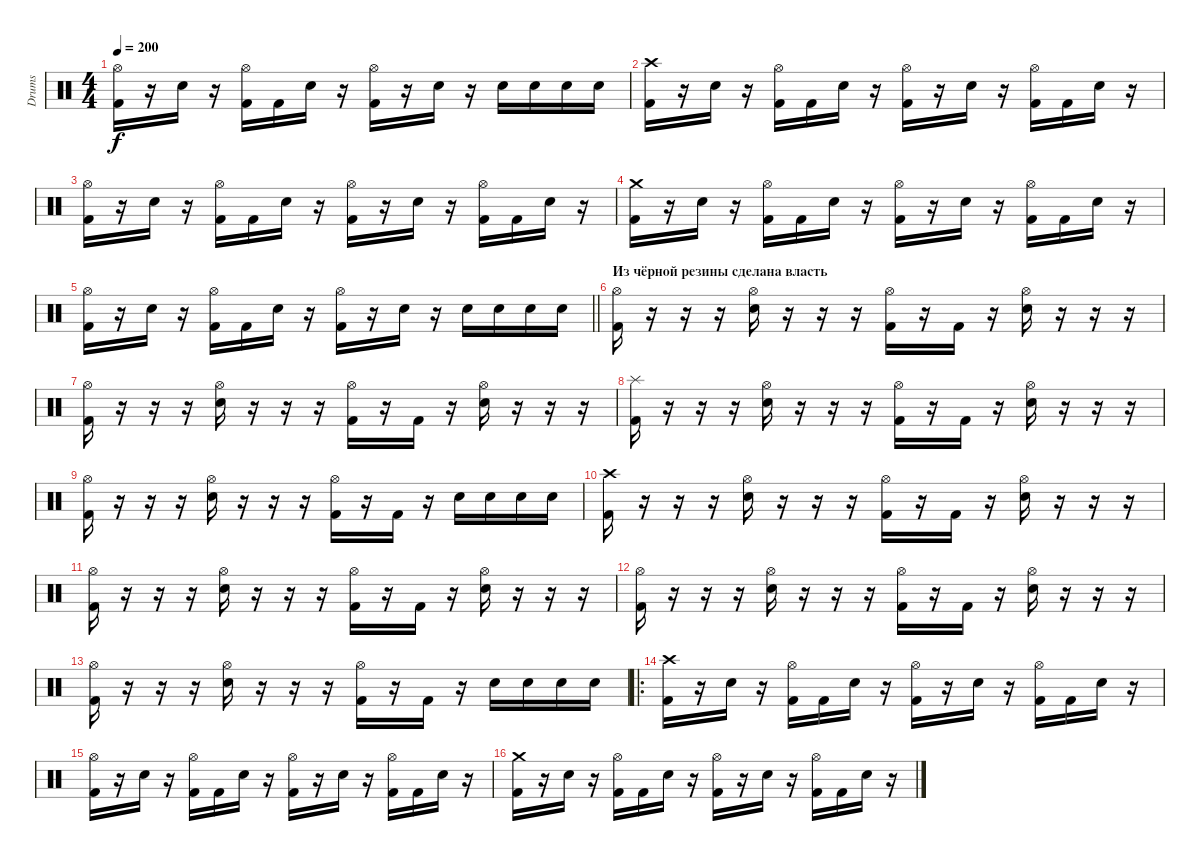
\track ("Drums" "Drums") {instrument percussion}
\staff {score}
\articulation defaults
\ts (4 4)
\tempo 200
\clef neutral
\ks c
("Hi-Hat (open)" "Kick (hit) 2").16{dy f} r.16 "Electric Snare (hit)".16 r.16 ("Hi-Hat (open)" "Kick (hit) 2").16 "Kick (hit) 2".16 "Electric Snare (hit)".16 r.16 ("Hi-Hat (open)" "Kick (hit) 2").16 r.16 "Electric Snare (hit)".16 r.16 "Electric Snare (hit)".16 "Electric Snare (hit)".16 "Electric Snare (hit)".16 "Electric Snare (hit)".16 |
("Crash high (hit)" "Kick (hit) 2").16 r.16 "Electric Snare (hit)".16 r.16 ("Hi-Hat (open)" "Kick (hit) 2").16 "Kick (hit) 2".16 "Electric Snare (hit)".16 r.16 ("Hi-Hat (open)" "Kick (hit) 2").16 r.16 "Electric Snare (hit)".16 r.16 ("Hi-Hat (open)" "Kick (hit) 2").16 "Kick (hit) 2".16 "Electric Snare (hit)".16 r.16 |
("Hi-Hat (open)" "Kick (hit) 2").16 r.16 "Electric Snare (hit)".16 r.16 ("Hi-Hat (open)" "Kick (hit) 2").16 "Kick (hit) 2".16 "Electric Snare (hit)".16 r.16 ("Hi-Hat (open)" "Kick (hit) 2").16 r.16 "Electric Snare (hit)".16 r.16 ("Hi-Hat (open)" "Kick (hit) 2").16 "Kick (hit) 2".16 "Electric Snare (hit)".16 r.16 |
("Crash medium (hit)" "Kick (hit) 2").16 r.16 "Electric Snare (hit)".16 r.16 ("Hi-Hat (open)" "Kick (hit) 2").16 "Kick (hit) 2".16 "Electric Snare (hit)".16 r.16 ("Hi-Hat (open)" "Kick (hit) 2").16 r.16 "Electric Snare (hit)".16 r.16 ("Hi-Hat (open)" "Kick (hit) 2").16 "Kick (hit) 2".16 "Electric Snare (hit)".16 r.16 |
\barLineRight lightlight
("Hi-Hat (open)" "Kick (hit) 2").16 r.16 "Electric Snare (hit)".16 r.16 ("Hi-Hat (open)" "Kick (hit) 2").16 "Kick (hit) 2".16 "Electric Snare (hit)".16 r.16 ("Hi-Hat (open)" "Kick (hit) 2").16 r.16 "Electric Snare (hit)".16 r.16 "Electric Snare (hit)".16 "Electric Snare (hit)".16 "Electric Snare (hit)".16 "Electric Snare (hit)".16 |
\section ("" "Из чёрной резины сделана власть")
("Hi-Hat (open)" "Kick (hit) 2").16 r.16 r.16 r.16 ("Hi-Hat (open)" "Electric Snare (hit)").16 r.16 r.16 r.16 ("Hi-Hat (open)" "Kick (hit) 2").16 r.16 "Kick (hit) 2".16 r.16 ("Hi-Hat (open)" "Electric Snare (hit)").16 r.16 r.16 r.16 |
("Hi-Hat (open)" "Kick (hit) 2").16 r.16 r.16 r.16 ("Hi-Hat (open)" "Electric Snare (hit)").16 r.16 r.16 r.16 ("Hi-Hat (open)" "Kick (hit) 2").16 r.16 "Kick (hit) 2".16 r.16 ("Hi-Hat (open)" "Electric Snare (hit)").16 r.16 r.16 r.16 |
("Splash (hit)" "Kick (hit) 2").16 r.16 r.16 r.16 ("Hi-Hat (open)" "Electric Snare (hit)").16 r.16 r.16 r.16 ("Hi-Hat (open)" "Kick (hit) 2").16 r.16 "Kick (hit) 2".16 r.16 ("Hi-Hat (open)" "Electric Snare (hit)").16 r.16 r.16 r.16 |
("Hi-Hat (open)" "Kick (hit) 2").16 r.16 r.16 r.16 ("Hi-Hat (open)" "Electric Snare (hit)").16 r.16 r.16 r.16 ("Hi-Hat (open)" "Kick (hit) 2").16 r.16 "Kick (hit) 2".16 r.16 "Electric Snare (hit)".16 "Electric Snare (hit)".16 "Electric Snare (hit)".16 "Electric Snare (hit)".16 |
("Crash high (hit)" "Kick (hit) 2").16 r.16 r.16 r.16 ("Hi-Hat (open)" "Electric Snare (hit)").16 r.16 r.16 r.16 ("Hi-Hat (open)" "Kick (hit) 2").16 r.16 "Kick (hit) 2".16 r.16 ("Hi-Hat (open)" "Electric Snare (hit)").16 r.16 r.16 r.16 |
("Hi-Hat (open)" "Kick (hit) 2").16 r.16 r.16 r.16 ("Hi-Hat (open)" "Electric Snare (hit)").16 r.16 r.16 r.16 ("Hi-Hat (open)" "Kick (hit) 2").16 r.16 "Kick (hit) 2".16 r.16 ("Hi-Hat (open)" "Electric Snare (hit)").16 r.16 r.16 r.16 |
("Hi-Hat (open)" "Kick (hit) 2").16 r.16 r.16 r.16 ("Hi-Hat (open)" "Electric Snare (hit)").16 r.16 r.16 r.16 ("Hi-Hat (open)" "Kick (hit) 2").16 r.16 "Kick (hit) 2".16 r.16 ("Hi-Hat (open)" "Electric Snare (hit)").16 r.16 r.16 r.16 |
("Hi-Hat (open)" "Kick (hit) 2").16 r.16 r.16 r.16 ("Hi-Hat (open)" "Electric Snare (hit)").16 r.16 r.16 r.16 ("Hi-Hat (open)" "Kick (hit) 2").16 r.16 "Kick (hit) 2".16 r.16 "Electric Snare (hit)".16 "Electric Snare (hit)".16 "Electric Snare (hit)".16 "Electric Snare (hit)".16 |
\ro
("Crash high (hit)" "Kick (hit) 2").16 r.16 "Electric Snare (hit)".16 r.16 ("Hi-Hat (open)" "Kick (hit) 2").16 "Kick (hit) 2".16 "Electric Snare (hit)".16 r.16 ("Hi-Hat (open)" "Kick (hit) 2").16 r.16 "Electric Snare (hit)".16 r.16 ("Hi-Hat (open)" "Kick (hit) 2").16 "Kick (hit) 2".16 "Electric Snare (hit)".16 r.16 |
("Hi-Hat (open)" "Kick (hit) 2").16 r.16 "Electric Snare (hit)".16 r.16 ("Hi-Hat (open)" "Kick (hit) 2").16 "Kick (hit) 2".16 "Electric Snare (hit)".16 r.16 ("Hi-Hat (open)" "Kick (hit) 2").16 r.16 "Electric Snare (hit)".16 r.16 ("Hi-Hat (open)" "Kick (hit) 2").16 "Kick (hit) 2".16 "Electric Snare (hit)".16 r.16 |
("Crash medium (hit)" "Kick (hit) 2").16 r.16 "Electric Snare (hit)".16 r.16 ("Hi-Hat (open)" "Kick (hit) 2").16 "Kick (hit) 2".16 "Electric Snare (hit)".16 r.16 ("Hi-Hat (open)" "Kick (hit) 2").16 r.16 "Electric Snare (hit)".16 r.16 ("Hi-Hat (open)" "Kick (hit) 2").16 "Kick (hit) 2".16 "Electric Snare (hit)".16 r.16
